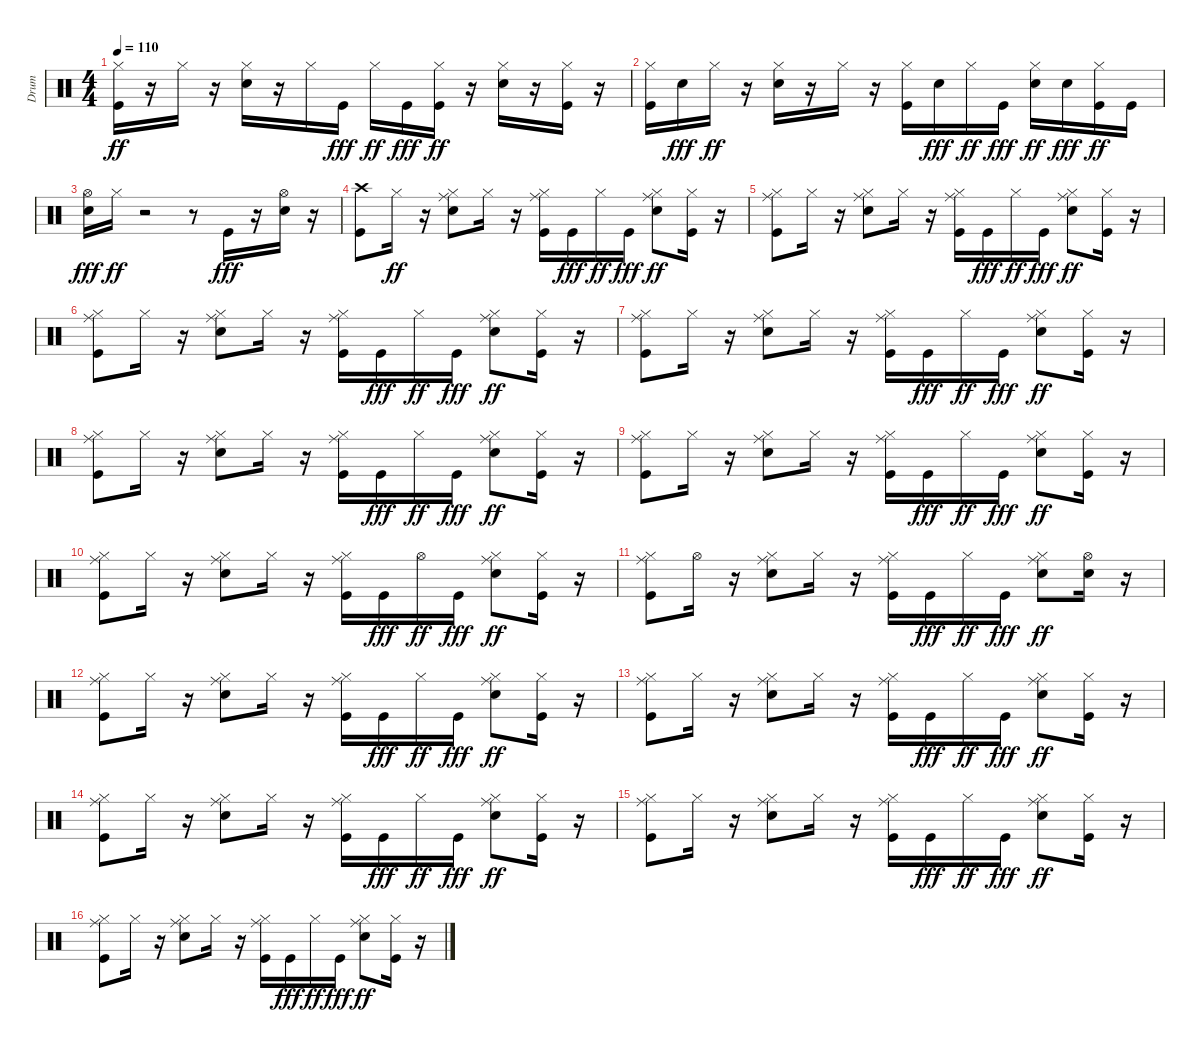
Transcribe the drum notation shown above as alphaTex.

\track ("Drum" "Drum") {instrument percussion}
\staff {score}
\articulation defaults
\ts (4 4)
\tempo 110
\clef neutral
\ks c
("Kick (hit)" "Hi-Hat (closed)").16{dy ff} r.16 "Hi-Hat (closed)".16 r.16 ("Electric Snare (hit)" "Hi-Hat (closed)").16 r.16 "Hi-Hat (closed)".16 "Kick (hit)".16{dy fff} "Hi-Hat (closed)".16{dy ff} "Kick (hit)".16{dy fff} ("Kick (hit)" "Hi-Hat (closed)").16{dy ff} r.16 ("Electric Snare (hit)" "Hi-Hat (closed)").16 r.16 ("Kick (hit)" "Hi-Hat (closed)").16 r.16 |
("Kick (hit)" "Hi-Hat (closed)").16 "Electric Snare (hit)".16{dy fff} "Hi-Hat (closed)".16{dy ff} r.16 ("Electric Snare (hit)" "Hi-Hat (closed)").16 r.16 "Hi-Hat (closed)".16 r.16 ("Kick (hit)" "Hi-Hat (closed)").16 "Electric Snare (hit)".16{dy fff} "Hi-Hat (closed)".16{dy ff} "Kick (hit)".16{dy fff} ("Electric Snare (hit)" "Hi-Hat (closed)").16{dy ff} "Electric Snare (hit)".16{dy fff} ("Kick (hit)" "Hi-Hat (closed)").16{dy ff} "Kick (hit)".16 |
("Hi-Hat (open)" "Electric Snare (hit)").16{dy fff} "Hi-Hat (closed)".16{dy ff} r.2 r.8 "Kick (hit)".16{dy fff} r.16 ("Hi-Hat (open)" "Electric Snare (hit)").16 r.16 |
("Crash high (hit)" "Kick (hit)").8 "Hi-Hat (closed)".16{dy ff} r.16 ("Electric Snare (hit)" "Hi-Hat (closed)" "Ride (middle)").8 "Hi-Hat (closed)".16 r.16 ("Kick (hit)" "Hi-Hat (closed)" "Ride (middle)").16 "Kick (hit)".16{dy fff} "Hi-Hat (closed)".16{dy ff} "Kick (hit)".16{dy fff} ("Electric Snare (hit)" "Hi-Hat (closed)" "Ride (middle)").8{dy ff} ("Kick (hit)" "Hi-Hat (closed)").16 r.16 |
("Kick (hit)" "Hi-Hat (closed)" "Ride (middle)").8 "Hi-Hat (closed)".16 r.16 ("Electric Snare (hit)" "Hi-Hat (closed)" "Ride (middle)").8 "Hi-Hat (closed)".16 r.16 ("Kick (hit)" "Hi-Hat (closed)" "Ride (middle)").16 "Kick (hit)".16{dy fff} "Hi-Hat (closed)".16{dy ff} "Kick (hit)".16{dy fff} ("Electric Snare (hit)" "Hi-Hat (closed)" "Ride (middle)").8{dy ff} ("Kick (hit)" "Hi-Hat (closed)").16 r.16 |
("Kick (hit)" "Hi-Hat (closed)" "Ride (middle)").8 "Hi-Hat (closed)".16 r.16 ("Electric Snare (hit)" "Hi-Hat (closed)" "Ride (middle)").8 "Hi-Hat (closed)".16 r.16 ("Kick (hit)" "Hi-Hat (closed)" "Ride (middle)").16 "Kick (hit)".16{dy fff} "Hi-Hat (closed)".16{dy ff} "Kick (hit)".16{dy fff} ("Electric Snare (hit)" "Hi-Hat (closed)" "Ride (middle)").8{dy ff} ("Kick (hit)" "Hi-Hat (closed)").16 r.16 |
("Kick (hit)" "Hi-Hat (closed)" "Ride (middle)").8 "Hi-Hat (closed)".16 r.16 ("Electric Snare (hit)" "Hi-Hat (closed)" "Ride (middle)").8 "Hi-Hat (closed)".16 r.16 ("Kick (hit)" "Hi-Hat (closed)" "Ride (middle)").16 "Kick (hit)".16{dy fff} "Hi-Hat (closed)".16{dy ff} "Kick (hit)".16{dy fff} ("Electric Snare (hit)" "Hi-Hat (closed)" "Ride (middle)").8{dy ff} ("Kick (hit)" "Hi-Hat (closed)").16 r.16 |
("Kick (hit)" "Hi-Hat (closed)" "Ride (middle)").8 "Hi-Hat (closed)".16 r.16 ("Electric Snare (hit)" "Hi-Hat (closed)" "Ride (middle)").8 "Hi-Hat (closed)".16 r.16 ("Kick (hit)" "Hi-Hat (closed)" "Ride (middle)").16 "Kick (hit)".16{dy fff} "Hi-Hat (closed)".16{dy ff} "Kick (hit)".16{dy fff} ("Electric Snare (hit)" "Hi-Hat (closed)" "Ride (middle)").8{dy ff} ("Kick (hit)" "Hi-Hat (closed)").16 r.16 |
("Kick (hit)" "Hi-Hat (closed)" "Ride (middle)").8 "Hi-Hat (closed)".16 r.16 ("Electric Snare (hit)" "Hi-Hat (closed)" "Ride (middle)").8 "Hi-Hat (closed)".16 r.16 ("Kick (hit)" "Hi-Hat (closed)" "Ride (middle)").16 "Kick (hit)".16{dy fff} "Hi-Hat (closed)".16{dy ff} "Kick (hit)".16{dy fff} ("Electric Snare (hit)" "Hi-Hat (closed)" "Ride (middle)").8{dy ff} ("Kick (hit)" "Hi-Hat (closed)").16 r.16 |
("Kick (hit)" "Hi-Hat (closed)" "Ride (middle)").8 "Hi-Hat (closed)".16 r.16 ("Electric Snare (hit)" "Hi-Hat (closed)" "Ride (middle)").8 "Hi-Hat (closed)".16 r.16 ("Kick (hit)" "Hi-Hat (closed)" "Ride (middle)").16 "Kick (hit)".16{dy fff} "Hi-Hat (open)".16{dy ff} "Kick (hit)".16{dy fff} ("Electric Snare (hit)" "Hi-Hat (closed)" "Ride (middle)").8{dy ff} ("Kick (hit)" "Hi-Hat (closed)").16 r.16 |
("Kick (hit)" "Hi-Hat (closed)" "Ride (middle)").8 "Hi-Hat (open)".16 r.16 ("Electric Snare (hit)" "Hi-Hat (closed)" "Ride (middle)").8 "Hi-Hat (closed)".16 r.16 ("Kick (hit)" "Hi-Hat (closed)" "Ride (middle)").16 "Kick (hit)".16{dy fff} "Hi-Hat (closed)".16{dy ff} "Kick (hit)".16{dy fff} ("Electric Snare (hit)" "Hi-Hat (closed)" "Ride (middle)").8{dy ff} ("Electric Snare (hit)" "Hi-Hat (open)").16 r.16 |
("Kick (hit)" "Hi-Hat (closed)" "Ride (middle)").8 "Hi-Hat (closed)".16 r.16 ("Electric Snare (hit)" "Hi-Hat (closed)" "Ride (middle)").8 "Hi-Hat (closed)".16 r.16 ("Kick (hit)" "Hi-Hat (closed)" "Ride (middle)").16 "Kick (hit)".16{dy fff} "Hi-Hat (closed)".16{dy ff} "Kick (hit)".16{dy fff} ("Electric Snare (hit)" "Hi-Hat (closed)" "Ride (middle)").8{dy ff} ("Kick (hit)" "Hi-Hat (closed)").16 r.16 |
("Kick (hit)" "Hi-Hat (closed)" "Ride (middle)").8 "Hi-Hat (closed)".16 r.16 ("Electric Snare (hit)" "Hi-Hat (closed)" "Ride (middle)").8 "Hi-Hat (closed)".16 r.16 ("Kick (hit)" "Hi-Hat (closed)" "Ride (middle)").16 "Kick (hit)".16{dy fff} "Hi-Hat (closed)".16{dy ff} "Kick (hit)".16{dy fff} ("Electric Snare (hit)" "Hi-Hat (closed)" "Ride (middle)").8{dy ff} ("Kick (hit)" "Hi-Hat (closed)").16 r.16 |
("Kick (hit)" "Hi-Hat (closed)" "Ride (middle)").8 "Hi-Hat (closed)".16 r.16 ("Electric Snare (hit)" "Hi-Hat (closed)" "Ride (middle)").8 "Hi-Hat (closed)".16 r.16 ("Kick (hit)" "Hi-Hat (closed)" "Ride (middle)").16 "Kick (hit)".16{dy fff} "Hi-Hat (closed)".16{dy ff} "Kick (hit)".16{dy fff} ("Electric Snare (hit)" "Hi-Hat (closed)" "Ride (middle)").8{dy ff} ("Kick (hit)" "Hi-Hat (closed)").16 r.16 |
("Kick (hit)" "Hi-Hat (closed)" "Ride (middle)").8 "Hi-Hat (closed)".16 r.16 ("Electric Snare (hit)" "Hi-Hat (closed)" "Ride (middle)").8 "Hi-Hat (closed)".16 r.16 ("Kick (hit)" "Hi-Hat (closed)" "Ride (middle)").16 "Kick (hit)".16{dy fff} "Hi-Hat (closed)".16{dy ff} "Kick (hit)".16{dy fff} ("Electric Snare (hit)" "Hi-Hat (closed)" "Ride (middle)").8{dy ff} ("Kick (hit)" "Hi-Hat (closed)").16 r.16 |
("Kick (hit)" "Hi-Hat (closed)" "Ride (middle)").8 "Hi-Hat (closed)".16 r.16 ("Electric Snare (hit)" "Hi-Hat (closed)" "Ride (middle)").8 "Hi-Hat (closed)".16 r.16 ("Kick (hit)" "Hi-Hat (closed)" "Ride (middle)").16 "Kick (hit)".16{dy fff} "Hi-Hat (closed)".16{dy ff} "Kick (hit)".16{dy fff} ("Electric Snare (hit)" "Hi-Hat (closed)" "Ride (middle)").8{dy ff} ("Kick (hit)" "Hi-Hat (closed)").16 r.16
